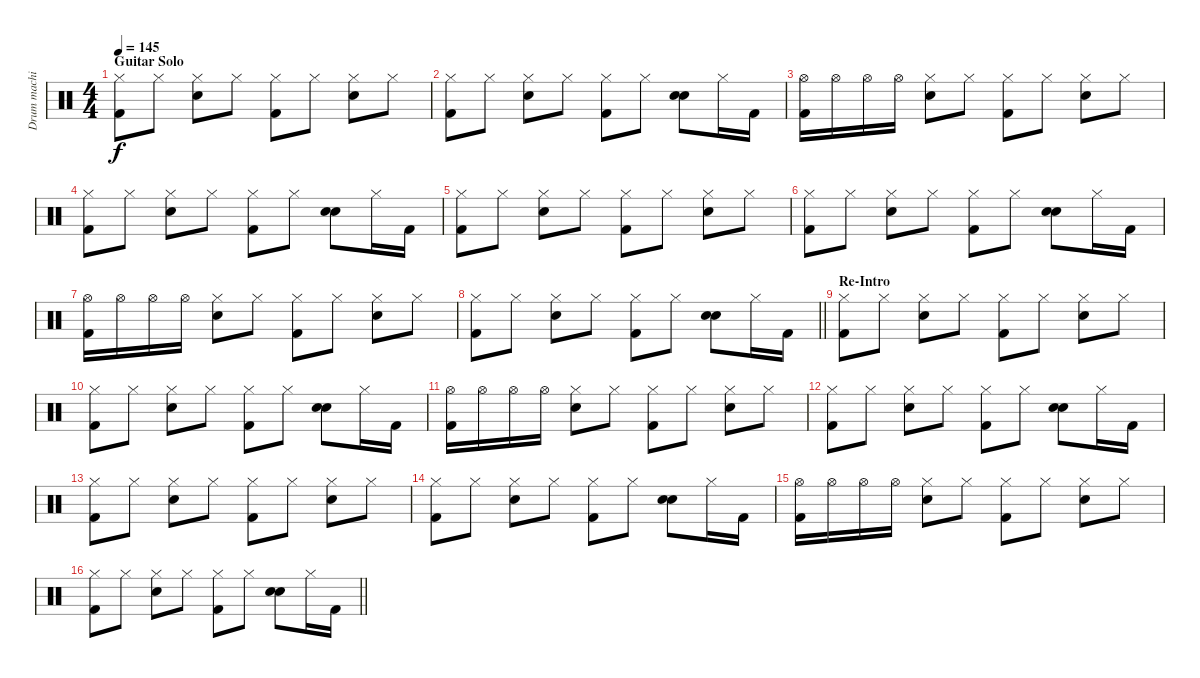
\track ("Drum machine" "Drum machi") {instrument percussion}
\staff {score}
\articulation defaults
\ts (4 4)
\section ("" "Guitar Solo")
\tempo 145
\clef neutral
\ks c
("Hi-Hat (closed)" "Kick (hit) 2").8{dy f} "Hi-Hat (closed)".8 ("Hi-Hat (closed)" "Electric Snare (hit)").8 "Hi-Hat (closed)".8 ("Hi-Hat (closed)" "Kick (hit) 2").8 "Hi-Hat (closed)".8 ("Hi-Hat (closed)" "Electric Snare (hit)").8 "Hi-Hat (closed)".8 |
("Hi-Hat (closed)" "Kick (hit) 2").8 "Hi-Hat (closed)".8 ("Hi-Hat (closed)" "Electric Snare (hit)").8 "Hi-Hat (closed)".8 ("Hi-Hat (closed)" "Kick (hit) 2").8 "Hi-Hat (closed)".8 ("Snare (hit) 2" "Electric Snare (hit)").8 "Hi-Hat (closed)".16 "Kick (hit) 2".16 |
("Hi-Hat (open)" "Kick (hit) 2").16 "Hi-Hat (open)".16 "Hi-Hat (open)".16 "Hi-Hat (open)".16 ("Hi-Hat (closed)" "Electric Snare (hit)").8 "Hi-Hat (closed)".8 ("Hi-Hat (closed)" "Kick (hit) 2").8 "Hi-Hat (closed)".8 ("Hi-Hat (closed)" "Electric Snare (hit)").8 "Hi-Hat (closed)".8 |
("Hi-Hat (closed)" "Kick (hit) 2").8 "Hi-Hat (closed)".8 ("Hi-Hat (closed)" "Electric Snare (hit)").8 "Hi-Hat (closed)".8 ("Hi-Hat (closed)" "Kick (hit) 2").8 "Hi-Hat (closed)".8 ("Snare (hit) 2" "Electric Snare (hit)").8 "Hi-Hat (closed)".16 "Kick (hit) 2".16 |
("Hi-Hat (closed)" "Kick (hit) 2").8 "Hi-Hat (closed)".8 ("Hi-Hat (closed)" "Electric Snare (hit)").8 "Hi-Hat (closed)".8 ("Hi-Hat (closed)" "Kick (hit) 2").8 "Hi-Hat (closed)".8 ("Hi-Hat (closed)" "Electric Snare (hit)").8 "Hi-Hat (closed)".8 |
("Hi-Hat (closed)" "Kick (hit) 2").8 "Hi-Hat (closed)".8 ("Hi-Hat (closed)" "Electric Snare (hit)").8 "Hi-Hat (closed)".8 ("Hi-Hat (closed)" "Kick (hit) 2").8 "Hi-Hat (closed)".8 ("Snare (hit) 2" "Electric Snare (hit)").8 "Hi-Hat (closed)".16 "Kick (hit) 2".16 |
("Hi-Hat (open)" "Kick (hit) 2").16 "Hi-Hat (open)".16 "Hi-Hat (open)".16 "Hi-Hat (open)".16 ("Hi-Hat (closed)" "Electric Snare (hit)").8 "Hi-Hat (closed)".8 ("Hi-Hat (closed)" "Kick (hit) 2").8 "Hi-Hat (closed)".8 ("Hi-Hat (closed)" "Electric Snare (hit)").8 "Hi-Hat (closed)".8 |
\barLineRight lightlight
("Hi-Hat (closed)" "Kick (hit) 2").8 "Hi-Hat (closed)".8 ("Hi-Hat (closed)" "Electric Snare (hit)").8 "Hi-Hat (closed)".8 ("Hi-Hat (closed)" "Kick (hit) 2").8 "Hi-Hat (closed)".8 ("Snare (hit) 2" "Electric Snare (hit)").8 "Hi-Hat (closed)".16 "Kick (hit) 2".16 |
\section ("" "Re-Intro")
("Hi-Hat (closed)" "Kick (hit) 2").8 "Hi-Hat (closed)".8 ("Hi-Hat (closed)" "Electric Snare (hit)").8 "Hi-Hat (closed)".8 ("Hi-Hat (closed)" "Kick (hit) 2").8 "Hi-Hat (closed)".8 ("Hi-Hat (closed)" "Electric Snare (hit)").8 "Hi-Hat (closed)".8 |
("Hi-Hat (closed)" "Kick (hit) 2").8 "Hi-Hat (closed)".8 ("Hi-Hat (closed)" "Electric Snare (hit)").8 "Hi-Hat (closed)".8 ("Hi-Hat (closed)" "Kick (hit) 2").8 "Hi-Hat (closed)".8 ("Snare (hit) 2" "Electric Snare (hit)").8 "Hi-Hat (closed)".16 "Kick (hit) 2".16 |
("Hi-Hat (open)" "Kick (hit) 2").16 "Hi-Hat (open)".16 "Hi-Hat (open)".16 "Hi-Hat (open)".16 ("Hi-Hat (closed)" "Electric Snare (hit)").8 "Hi-Hat (closed)".8 ("Hi-Hat (closed)" "Kick (hit) 2").8 "Hi-Hat (closed)".8 ("Hi-Hat (closed)" "Electric Snare (hit)").8 "Hi-Hat (closed)".8 |
("Hi-Hat (closed)" "Kick (hit) 2").8 "Hi-Hat (closed)".8 ("Hi-Hat (closed)" "Electric Snare (hit)").8 "Hi-Hat (closed)".8 ("Hi-Hat (closed)" "Kick (hit) 2").8 "Hi-Hat (closed)".8 ("Snare (hit) 2" "Electric Snare (hit)").8 "Hi-Hat (closed)".16 "Kick (hit) 2".16 |
("Hi-Hat (closed)" "Kick (hit) 2").8 "Hi-Hat (closed)".8 ("Hi-Hat (closed)" "Electric Snare (hit)").8 "Hi-Hat (closed)".8 ("Hi-Hat (closed)" "Kick (hit) 2").8 "Hi-Hat (closed)".8 ("Hi-Hat (closed)" "Electric Snare (hit)").8 "Hi-Hat (closed)".8 |
("Hi-Hat (closed)" "Kick (hit) 2").8 "Hi-Hat (closed)".8 ("Hi-Hat (closed)" "Electric Snare (hit)").8 "Hi-Hat (closed)".8 ("Hi-Hat (closed)" "Kick (hit) 2").8 "Hi-Hat (closed)".8 ("Snare (hit) 2" "Electric Snare (hit)").8 "Hi-Hat (closed)".16 "Kick (hit) 2".16 |
("Hi-Hat (open)" "Kick (hit) 2").16 "Hi-Hat (open)".16 "Hi-Hat (open)".16 "Hi-Hat (open)".16 ("Hi-Hat (closed)" "Electric Snare (hit)").8 "Hi-Hat (closed)".8 ("Hi-Hat (closed)" "Kick (hit) 2").8 "Hi-Hat (closed)".8 ("Hi-Hat (closed)" "Electric Snare (hit)").8 "Hi-Hat (closed)".8 |
\barLineRight lightlight
("Hi-Hat (closed)" "Kick (hit) 2").8 "Hi-Hat (closed)".8 ("Hi-Hat (closed)" "Electric Snare (hit)").8 "Hi-Hat (closed)".8 ("Hi-Hat (closed)" "Kick (hit) 2").8 "Hi-Hat (closed)".8 ("Snare (hit) 2" "Electric Snare (hit)").8 "Hi-Hat (closed)".16 "Kick (hit) 2".16
